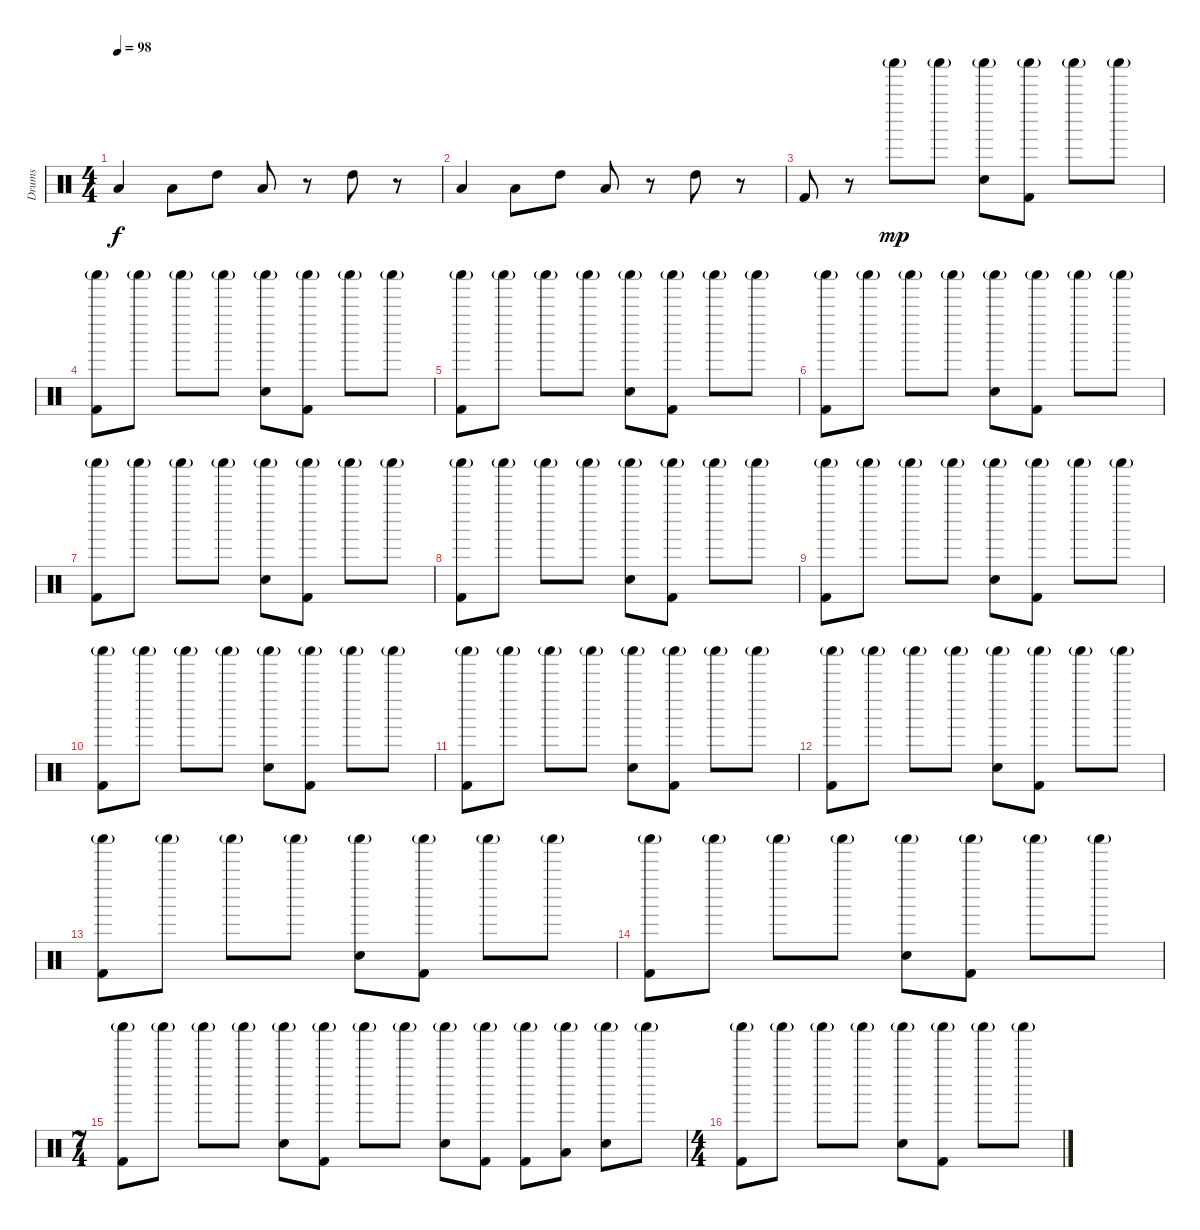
\track ("Drums" "Drums") {instrument percussion}
\staff {score}
\articulation defaults
\ts (4 4)
\tempo 98
\clef neutral
\ks c "Low Floor Tom (hit)".4{dy f} "Low Tom (hit)".8 "High Tom (hit)".8 "Low Floor Tom (hit)".8
r.8 "High Tom (hit)".8 r.8 |
"Low Floor Tom (hit)".4 "Low Tom (hit)".8 "High Tom (hit)".8 "Low Floor Tom (hit)".8 r.8 "High Tom (hit)".8 r.8 |
"Kick (hit) 2".8{volume 9} r.8 "Shaker (hit)"{g}.8{dy mp} "Shaker (hit)"{g}.8 ("Shaker (hit)"{g} "Snare (hit) 2").8 ("Shaker (hit)"{g} "Kick (hit) 2").8 "Shaker (hit)"{g}.8 "Shaker (hit)"{g}.8 |
("Shaker (hit)"{g} "Kick (hit) 2").8 "Shaker (hit)"{g}.8 "Shaker (hit)"{g}.8 "Shaker (hit)"{g}.8 ("Shaker (hit)"{g} "Snare (hit) 2").8 ("Shaker (hit)"{g} "Kick (hit) 2").8 "Shaker (hit)"{g}.8 "Shaker (hit)"{g}.8 |
("Shaker (hit)"{g} "Kick (hit) 2").8 "Shaker (hit)"{g}.8 "Shaker (hit)"{g}.8 "Shaker (hit)"{g}.8 ("Shaker (hit)"{g} "Snare (hit) 2").8 ("Shaker (hit)"{g} "Kick (hit) 2").8 "Shaker (hit)"{g}.8 "Shaker (hit)"{g}.8 |
("Shaker (hit)"{g} "Kick (hit) 2").8{volume 9} "Shaker (hit)"{g}.8 "Shaker (hit)"{g}.8 "Shaker (hit)"{g}.8 ("Shaker (hit)"{g} "Snare (hit) 2").8 ("Shaker (hit)"{g} "Kick (hit) 2").8 "Shaker (hit)"{g}.8 "Shaker (hit)"{g}.8 |
("Shaker (hit)"{g} "Kick (hit) 2").8{volume 9} "Shaker (hit)"{g}.8 "Shaker (hit)"{g}.8 "Shaker (hit)"{g}.8 ("Shaker (hit)"{g} "Snare (hit) 2").8 ("Shaker (hit)"{g} "Kick (hit) 2").8 "Shaker (hit)"{g}.8 "Shaker (hit)"{g}.8 |
("Shaker (hit)"{g} "Kick (hit) 2").8{volume 9} "Shaker (hit)"{g}.8 "Shaker (hit)"{g}.8 "Shaker (hit)"{g}.8 ("Shaker (hit)"{g} "Snare (hit) 2").8 ("Shaker (hit)"{g} "Kick (hit) 2").8 "Shaker (hit)"{g}.8 "Shaker (hit)"{g}.8 |
("Shaker (hit)"{g} "Kick (hit) 2").8{volume 9} "Shaker (hit)"{g}.8 "Shaker (hit)"{g}.8 "Shaker (hit)"{g}.8 ("Shaker (hit)"{g} "Snare (hit) 2").8 ("Shaker (hit)"{g} "Kick (hit) 2").8 "Shaker (hit)"{g}.8 "Shaker (hit)"{g}.8 |
("Shaker (hit)"{g} "Kick (hit) 2").8{volume 9} "Shaker (hit)"{g}.8 "Shaker (hit)"{g}.8 "Shaker (hit)"{g}.8 ("Shaker (hit)"{g} "Snare (hit) 2").8 ("Shaker (hit)"{g} "Kick (hit) 2").8 "Shaker (hit)"{g}.8 "Shaker (hit)"{g}.8 |
("Shaker (hit)"{g} "Kick (hit) 2").8{volume 9} "Shaker (hit)"{g}.8 "Shaker (hit)"{g}.8 "Shaker (hit)"{g}.8 ("Shaker (hit)"{g} "Snare (hit) 2").8 ("Shaker (hit)"{g} "Kick (hit) 2").8 "Shaker (hit)"{g}.8 "Shaker (hit)"{g}.8 |
("Shaker (hit)"{g} "Kick (hit) 2").8 "Shaker (hit)"{g}.8 "Shaker (hit)"{g}.8 "Shaker (hit)"{g}.8 ("Shaker (hit)"{g} "Snare (hit) 2").8 ("Shaker (hit)"{g} "Kick (hit) 2").8 "Shaker (hit)"{g}.8 "Shaker (hit)"{g}.8 |
("Shaker (hit)"{g} "Kick (hit) 2").8 "Shaker (hit)"{g}.8 "Shaker (hit)"{g}.8 "Shaker (hit)"{g}.8 ("Shaker (hit)"{g} "Snare (hit) 2").8 ("Shaker (hit)"{g} "Kick (hit) 2").8 "Shaker (hit)"{g}.8 "Shaker (hit)"{g}.8 |
("Shaker (hit)"{g} "Kick (hit) 2").8{volume 9} "Shaker (hit)"{g}.8 "Shaker (hit)"{g}.8 "Shaker (hit)"{g}.8 ("Shaker (hit)"{g} "Snare (hit) 2").8 ("Shaker (hit)"{g} "Kick (hit) 2").8 "Shaker (hit)"{g}.8 "Shaker (hit)"{g}.8 |
\ts (7 4)
("Shaker (hit)"{g} "Kick (hit) 2").8 "Shaker (hit)"{g}.8 "Shaker (hit)"{g}.8 "Shaker (hit)"{g}.8 ("Shaker (hit)"{g} "Snare (hit) 2").8 ("Shaker (hit)"{g} "Kick (hit) 2").8 "Shaker (hit)"{g}.8 "Shaker (hit)"{g}.8 ("Shaker (hit)"{g} "Snare (hit) 2").8 ("Shaker (hit)"{g} "Kick (hit) 2").8 ("Shaker (hit)"{g} "Kick (hit) 2").8 ("Shaker (hit)"{g} "Low Tom (hit)").8 ("Shaker (hit)"{g} "Snare (hit) 2").8 "Shaker (hit)"{g}.8 |
\ts (4 4)
("Shaker (hit)"{g} "Kick (hit) 2").8{volume 9} "Shaker (hit)"{g}.8 "Shaker (hit)"{g}.8 "Shaker (hit)"{g}.8 ("Shaker (hit)"{g} "Snare (hit) 2").8 ("Shaker (hit)"{g} "Kick (hit) 2").8 "Shaker (hit)"{g}.8 "Shaker (hit)"{g}.8
